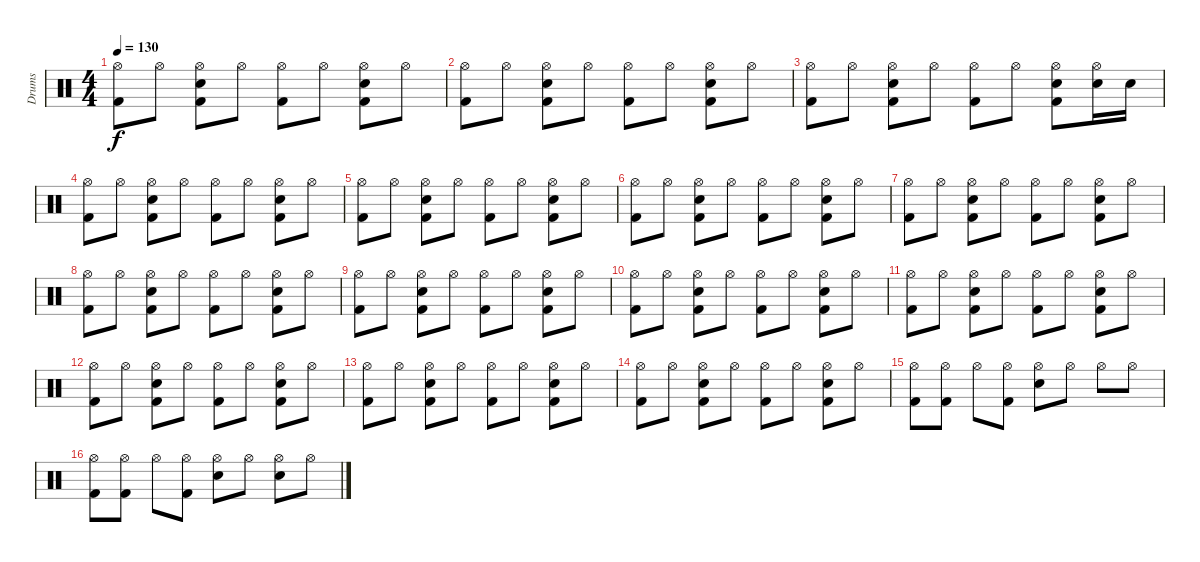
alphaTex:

\track ("Drums" "Drums") {instrument percussion}
\staff {score}
\articulation defaults
\ts (4 4)
\tempo 130
\clef neutral
\ks c
("Kick (hit) 2" "Hi-Hat (open)").8{dy f} "Hi-Hat (open)".8 ("Electric Snare (hit)" "Kick (hit) 2" "Hi-Hat (open)").8 "Hi-Hat (open)".8 ("Kick (hit) 2" "Hi-Hat (open)").8 "Hi-Hat (open)".8 ("Electric Snare (hit)" "Kick (hit) 2" "Hi-Hat (open)").8 "Hi-Hat (open)".8 |
("Kick (hit) 2" "Hi-Hat (open)").8 "Hi-Hat (open)".8 ("Electric Snare (hit)" "Kick (hit) 2" "Hi-Hat (open)").8 "Hi-Hat (open)".8 ("Kick (hit) 2" "Hi-Hat (open)").8 "Hi-Hat (open)".8 ("Electric Snare (hit)" "Kick (hit) 2" "Hi-Hat (open)").8 "Hi-Hat (open)".8 |
("Kick (hit) 2" "Hi-Hat (open)").8 "Hi-Hat (open)".8 ("Electric Snare (hit)" "Kick (hit) 2" "Hi-Hat (open)").8 "Hi-Hat (open)".8 ("Kick (hit) 2" "Hi-Hat (open)").8 "Hi-Hat (open)".8 ("Electric Snare (hit)" "Kick (hit) 2" "Hi-Hat (open)").8 ("Electric Snare (hit)" "Hi-Hat (open)").16 "Electric Snare (hit)".16 |
("Kick (hit) 2" "Hi-Hat (open)").8 "Hi-Hat (open)".8 ("Electric Snare (hit)" "Kick (hit) 2" "Hi-Hat (open)").8 "Hi-Hat (open)".8 ("Kick (hit) 2" "Hi-Hat (open)").8 "Hi-Hat (open)".8 ("Electric Snare (hit)" "Kick (hit) 2" "Hi-Hat (open)").8 "Hi-Hat (open)".8 |
("Kick (hit) 2" "Hi-Hat (open)").8 "Hi-Hat (open)".8 ("Electric Snare (hit)" "Kick (hit) 2" "Hi-Hat (open)").8 "Hi-Hat (open)".8 ("Kick (hit) 2" "Hi-Hat (open)").8 "Hi-Hat (open)".8 ("Electric Snare (hit)" "Kick (hit) 2" "Hi-Hat (open)").8 "Hi-Hat (open)".8 |
("Kick (hit) 2" "Hi-Hat (open)").8 "Hi-Hat (open)".8 ("Electric Snare (hit)" "Kick (hit) 2" "Hi-Hat (open)").8 "Hi-Hat (open)".8 ("Kick (hit) 2" "Hi-Hat (open)").8 "Hi-Hat (open)".8 ("Electric Snare (hit)" "Kick (hit) 2" "Hi-Hat (open)").8 "Hi-Hat (open)".8 |
("Kick (hit) 2" "Hi-Hat (open)").8 "Hi-Hat (open)".8 ("Electric Snare (hit)" "Kick (hit) 2" "Hi-Hat (open)").8 "Hi-Hat (open)".8 ("Kick (hit) 2" "Hi-Hat (open)").8 "Hi-Hat (open)".8 ("Electric Snare (hit)" "Kick (hit) 2" "Hi-Hat (open)").8 "Hi-Hat (open)".8 |
("Kick (hit) 2" "Hi-Hat (open)").8 "Hi-Hat (open)".8 ("Electric Snare (hit)" "Kick (hit) 2" "Hi-Hat (open)").8 "Hi-Hat (open)".8 ("Kick (hit) 2" "Hi-Hat (open)").8 "Hi-Hat (open)".8 ("Electric Snare (hit)" "Kick (hit) 2" "Hi-Hat (open)").8 "Hi-Hat (open)".8 |
("Kick (hit) 2" "Hi-Hat (open)").8 "Hi-Hat (open)".8 ("Electric Snare (hit)" "Kick (hit) 2" "Hi-Hat (open)").8 "Hi-Hat (open)".8 ("Kick (hit) 2" "Hi-Hat (open)").8 "Hi-Hat (open)".8 ("Electric Snare (hit)" "Kick (hit) 2" "Hi-Hat (open)").8 "Hi-Hat (open)".8 |
("Kick (hit) 2" "Hi-Hat (open)").8 "Hi-Hat (open)".8 ("Electric Snare (hit)" "Kick (hit) 2" "Hi-Hat (open)").8 "Hi-Hat (open)".8 ("Kick (hit) 2" "Hi-Hat (open)").8 "Hi-Hat (open)".8 ("Electric Snare (hit)" "Kick (hit) 2" "Hi-Hat (open)").8 "Hi-Hat (open)".8 |
("Kick (hit) 2" "Hi-Hat (open)").8 "Hi-Hat (open)".8 ("Electric Snare (hit)" "Kick (hit) 2" "Hi-Hat (open)").8 "Hi-Hat (open)".8 ("Kick (hit) 2" "Hi-Hat (open)").8 "Hi-Hat (open)".8 ("Electric Snare (hit)" "Kick (hit) 2" "Hi-Hat (open)").8 "Hi-Hat (open)".8 |
("Kick (hit) 2" "Hi-Hat (open)").8 "Hi-Hat (open)".8 ("Electric Snare (hit)" "Kick (hit) 2" "Hi-Hat (open)").8 "Hi-Hat (open)".8 ("Kick (hit) 2" "Hi-Hat (open)").8 "Hi-Hat (open)".8 ("Electric Snare (hit)" "Kick (hit) 2" "Hi-Hat (open)").8 "Hi-Hat (open)".8 |
("Kick (hit) 2" "Hi-Hat (open)").8 "Hi-Hat (open)".8 ("Electric Snare (hit)" "Kick (hit) 2" "Hi-Hat (open)").8 "Hi-Hat (open)".8 ("Kick (hit) 2" "Hi-Hat (open)").8 "Hi-Hat (open)".8 ("Electric Snare (hit)" "Kick (hit) 2" "Hi-Hat (open)").8 "Hi-Hat (open)".8 |
("Kick (hit) 2" "Hi-Hat (open)").8 "Hi-Hat (open)".8 ("Electric Snare (hit)" "Kick (hit) 2" "Hi-Hat (open)").8 "Hi-Hat (open)".8 ("Kick (hit) 2" "Hi-Hat (open)").8 "Hi-Hat (open)".8 ("Electric Snare (hit)" "Kick (hit) 2" "Hi-Hat (open)").8 "Hi-Hat (open)".8 |
("Kick (hit) 2" "Hi-Hat (open)").8 ("Kick (hit) 2" "Hi-Hat (open)").8 "Hi-Hat (open)".8 ("Kick (hit) 2" "Hi-Hat (open)").8 ("Electric Snare (hit)" "Hi-Hat (open)").8 "Hi-Hat (open)".8 "Hi-Hat (open)".8 "Hi-Hat (open)".8 |
("Kick (hit) 2" "Hi-Hat (open)").8 ("Kick (hit) 2" "Hi-Hat (open)").8 "Hi-Hat (open)".8 ("Kick (hit) 2" "Hi-Hat (open)").8 ("Electric Snare (hit)" "Hi-Hat (open)").8 "Hi-Hat (open)".8 ("Electric Snare (hit)" "Hi-Hat (open)").8 "Hi-Hat (open)".8
